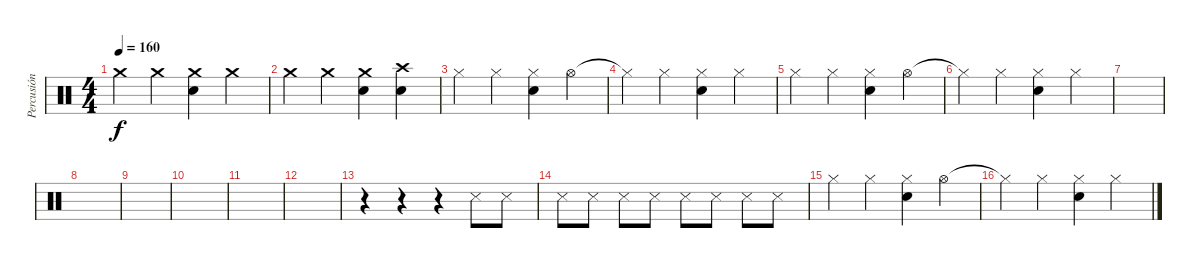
\track ("Percusión" "Percusión") {instrument percussion}
\staff {score}
\articulation defaults
\ts (4 4)
\tempo 160
\clef neutral
\ks c "Crash medium (hit)".4{dy f} "Crash medium (hit)".4
("Crash medium (hit)" "Electric Snare (hit)").4 "Crash medium (hit)".4 |
"Crash medium (hit)".4 "Crash medium (hit)".4 ("Crash medium (hit)" "Electric Snare (hit)").4 ("Crash high (hit)" "Electric Snare (hit)").4 |
"Hi-Hat (closed)".4 "Hi-Hat (closed)".4 ("Electric Snare (hit)" "Hi-Hat (closed)").4 "Hi-Hat (open)".4 |
"Hi-Hat (closed)"{t}.4 "Hi-Hat (closed)".4 ("Electric Snare (hit)" "Hi-Hat (closed)").4 "Hi-Hat (closed)".4 |
"Hi-Hat (closed)".4 "Hi-Hat (closed)".4 ("Electric Snare (hit)" "Hi-Hat (closed)").4 "Hi-Hat (open)".4 |
"Hi-Hat (closed)"{t}.4 "Hi-Hat (closed)".4 ("Electric Snare (hit)" "Hi-Hat (closed)").4 "Hi-Hat (closed)".4 |
|
|
|
|
|
|
r.4 r.4 r.4 "Metronome (hit)".8 "Metronome (hit)".8 |
"Metronome (hit)".8 "Metronome (hit)".8 "Metronome (hit)".8 "Metronome (hit)".8 "Metronome (hit)".8 "Metronome (hit)".8 "Metronome (hit)".8 "Metronome (hit)".8 |
"Hi-Hat (closed)".4 "Hi-Hat (closed)".4 ("Electric Snare (hit)" "Hi-Hat (closed)").4 "Hi-Hat (open)".4 |
"Hi-Hat (closed)"{t}.4 "Hi-Hat (closed)".4 ("Electric Snare (hit)" "Hi-Hat (closed)").4 "Hi-Hat (closed)".4
